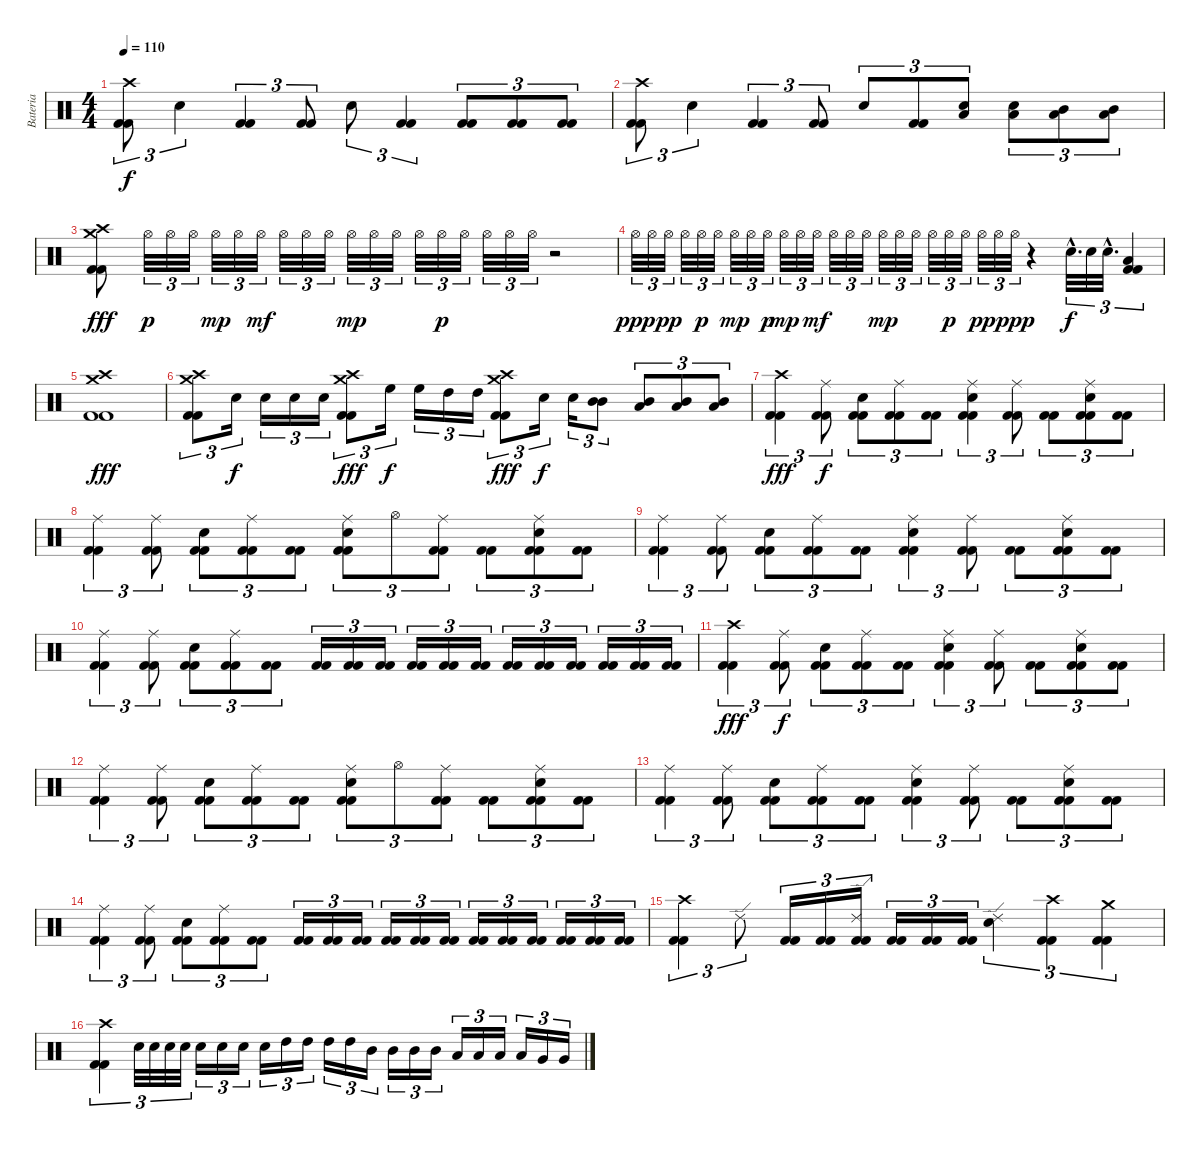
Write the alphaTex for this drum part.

\track ("Bateria" "Bateria") {instrument percussion}
\staff {score}
\articulation defaults
\ts (4 4)
\tempo 110
\clef neutral
\ks c
("Crash high (hit)" "Kick (hit) 2" "Kick (hit) 2").8{tu (3 2) dy f} "Electric Snare (hit)".4{tu (3 2)} ("Kick (hit) 2" "Kick (hit) 2").4{tu (3 2)} ("Kick (hit) 2" "Kick (hit) 2").8{tu (3 2)} "Electric Snare (hit)".8{tu (3 2)} ("Kick (hit) 2" "Kick (hit) 2").4{tu (3 2)} ("Kick (hit) 2" "Kick (hit) 2").8{tu (3 2)} ("Kick (hit) 2" "Kick (hit) 2").8{tu (3 2)} ("Kick (hit) 2" "Kick (hit) 2").8{tu (3 2)} |
("Crash high (hit)" "Kick (hit) 2" "Kick (hit) 2").8{tu (3 2)} "Electric Snare (hit)".4{tu (3 2)} ("Kick (hit) 2" "Kick (hit) 2").4{tu (3 2)} ("Kick (hit) 2" "Kick (hit) 2").8{tu (3 2)} "Electric Snare (hit)".8{tu (3 2)} ("Kick (hit) 2" "Kick (hit) 2").8{tu (3 2)} ("Electric Snare (hit)" "Low Tom (hit)").8{tu (3 2)} ("Electric Snare (hit)" "Low Tom (hit)").8{tu (3 2)} ("Low Tom (hit)" "Mid Tom (hit)").8{tu (3 2)} ("Low Tom (hit)" "Mid Tom (hit)").8{tu (3 2)} |
("Crash high (hit)" "Crash medium (hit)" "Kick (hit) 2" "Kick (hit) 2").8{dy fff} "Hi-Hat (open)".32{tu (3 2) dy p} "Hi-Hat (open)".32{tu (3 2)} "Hi-Hat (open)".32{tu (3 2)} "Hi-Hat (open)".32{tu (3 2) dy mp} "Hi-Hat (open)".32{tu (3 2)} "Hi-Hat (open)".32{tu (3 2) dy mf} "Hi-Hat (open)".32{tu (3 2)} "Hi-Hat (open)".32{tu (3 2)} "Hi-Hat (open)".32{tu (3 2)} "Hi-Hat (open)".32{tu (3 2) dy mp} "Hi-Hat (open)".32{tu (3 2)} "Hi-Hat (open)".32{tu (3 2)} "Hi-Hat (open)".32{tu (3 2)} "Hi-Hat (open)".32{tu (3 2) dy p} "Hi-Hat (open)".32{tu (3 2)} "Hi-Hat (open)".32{tu (3 2)} "Hi-Hat (open)".32{tu (3 2)} "Hi-Hat (open)".32{tu (3 2)} r.2 |
"Hi-Hat (open)".32{tu (3 2) dy ppp} "Hi-Hat (open)".32{tu (3 2)} "Hi-Hat (open)".32{tu (3 2) dy pp} "Hi-Hat (open)".32{tu (3 2)} "Hi-Hat (open)".32{tu (3 2) dy p} "Hi-Hat (open)".32{tu (3 2)} "Hi-Hat (open)".32{tu (3 2) dy mp} "Hi-Hat (open)".32{tu (3 2)} "Hi-Hat (open)".32{tu (3 2) dy p} "Hi-Hat (open)".32{tu (3 2) dy mp} "Hi-Hat (open)".32{tu (3 2)} "Hi-Hat (open)".32{tu (3 2) dy mf} "Hi-Hat (open)".32{tu (3 2)} "Hi-Hat (open)".32{tu (3 2)} "Hi-Hat (open)".32{tu (3 2)} "Hi-Hat (open)".32{tu (3 2) dy mp} "Hi-Hat (open)".32{tu (3 2)} "Hi-Hat (open)".32{tu (3 2)} "Hi-Hat (open)".32{tu (3 2)} "Hi-Hat (open)".32{tu (3 2) dy p} "Hi-Hat (open)".32{tu (3 2)} "Hi-Hat (open)".32{tu (3 2) dy pp} "Hi-Hat (open)".32{tu (3 2)} "Hi-Hat (open)".32{tu (3 2) dy ppp} r.4 "Electric Snare (hit)"{hac}.32{d tu (3 2) dy f} "Electric Snare (hit)".32{tu (3 2)} "Electric Snare (hit)"{hac}.32{d tu (3 2)} ("Low Tom (hit)" "Kick (hit) 2" "Kick (hit) 2").4{tu (3 2)} |
("Crash high (hit)" "Crash medium (hit)" "Kick (hit) 2" "Kick (hit) 2").1{dy fff} |
("Crash high (hit)" "Crash medium (hit)" "Kick (hit) 2" "Kick (hit) 2").8{tu (3 2)} "Electric Snare (hit)".16{tu (3 2) dy f} "Electric Snare (hit)".16{tu (3 2)} "Electric Snare (hit)".16{tu (3 2)} "Electric Snare (hit)".16{tu (3 2)} ("Crash high (hit)" "Crash medium (hit)" "Kick (hit) 2" "Kick (hit) 2").8{tu (3 2) dy fff} "High Floor Tom (hit)".16{tu (3 2) dy f} "High Floor Tom (hit)".16{tu (3 2)} "High Tom (hit)".16{tu (3 2)} "High Tom (hit)".16{tu (3 2)} ("Crash high (hit)" "Crash medium (hit)" "Kick (hit) 2" "Kick (hit) 2").8{tu (3 2) dy fff} "Electric Snare (hit)".16{tu (3 2) dy f} "Electric Snare (hit)".16{tu (3 2)} ("Mid Tom (hit)" "Mid Tom (hit)").8{tu (3 2)} ("Low Tom (hit)" "Mid Tom (hit)").8{tu (3 2)} ("Low Tom (hit)" "Mid Tom (hit)").8{tu (3 2)} ("Low Tom (hit)" "Mid Tom (hit)").8{tu (3 2)} |
("Crash high (hit)" "Kick (hit) 2" "Kick (hit) 2").4{tu (3 2) dy fff} ("Ride (middle)" "Kick (hit) 2" "Kick (hit) 2").8{tu (3 2) dy f} ("Electric Snare (hit)" "Kick (hit) 2" "Kick (hit) 2").8{tu (3 2)} ("Ride (middle)" "Kick (hit) 2" "Kick (hit) 2").8{tu (3 2)} ("Kick (hit) 2" "Kick (hit) 2").8{tu (3 2)} ("Ride (middle)" "Electric Snare (hit)" "Kick (hit) 2" "Kick (hit) 2").4{tu (3 2)} ("Ride (middle)" "Kick (hit) 2" "Kick (hit) 2").8{tu (3 2)} ("Kick (hit) 2" "Kick (hit) 2").8{tu (3 2)} ("Ride (middle)" "Electric Snare (hit)" "Kick (hit) 2" "Kick (hit) 2").8{tu (3 2)} ("Kick (hit) 2" "Kick (hit) 2").8{tu (3 2)} |
("Ride (middle)" "Kick (hit) 2" "Kick (hit) 2").4{tu (3 2)} ("Ride (middle)" "Kick (hit) 2" "Kick (hit) 2").8{tu (3 2)} ("Electric Snare (hit)" "Kick (hit) 2" "Kick (hit) 2").8{tu (3 2)} ("Ride (middle)" "Kick (hit) 2" "Kick (hit) 2").8{tu (3 2)} ("Kick (hit) 2" "Kick (hit) 2").8{tu (3 2)} ("Ride (middle)" "Electric Snare (hit)" "Kick (hit) 2" "Kick (hit) 2").8{tu (3 2)} "Hi-Hat (open)".8{tu (3 2)} ("Ride (middle)" "Kick (hit) 2" "Kick (hit) 2").8{tu (3 2)} ("Kick (hit) 2" "Kick (hit) 2").8{tu (3 2)} ("Ride (middle)" "Electric Snare (hit)" "Kick (hit) 2" "Kick (hit) 2").8{tu (3 2)} ("Kick (hit) 2" "Kick (hit) 2").8{tu (3 2)} |
("Ride (middle)" "Kick (hit) 2" "Kick (hit) 2").4{tu (3 2)} ("Ride (middle)" "Kick (hit) 2" "Kick (hit) 2").8{tu (3 2)} ("Electric Snare (hit)" "Kick (hit) 2" "Kick (hit) 2").8{tu (3 2)} ("Ride (middle)" "Kick (hit) 2" "Kick (hit) 2").8{tu (3 2)} ("Kick (hit) 2" "Kick (hit) 2").8{tu (3 2)} ("Ride (middle)" "Electric Snare (hit)" "Kick (hit) 2" "Kick (hit) 2").4{tu (3 2)} ("Ride (middle)" "Kick (hit) 2" "Kick (hit) 2").8{tu (3 2)} ("Kick (hit) 2" "Kick (hit) 2").8{tu (3 2)} ("Ride (middle)" "Electric Snare (hit)" "Kick (hit) 2" "Kick (hit) 2").8{tu (3 2)} ("Kick (hit) 2" "Kick (hit) 2").8{tu (3 2)} |
("Ride (middle)" "Kick (hit) 2" "Kick (hit) 2").4{tu (3 2)} ("Ride (middle)" "Kick (hit) 2" "Kick (hit) 2").8{tu (3 2)} ("Electric Snare (hit)" "Kick (hit) 2" "Kick (hit) 2").8{tu (3 2)} ("Ride (middle)" "Kick (hit) 2" "Kick (hit) 2").8{tu (3 2)} ("Kick (hit) 2" "Kick (hit) 2").8{tu (3 2)} ("Kick (hit) 2" "Kick (hit) 2").16{tu (3 2)} ("Kick (hit) 2" "Kick (hit) 2").16{tu (3 2)} ("Kick (hit) 2" "Kick (hit) 2").16{tu (3 2)} ("Kick (hit) 2" "Kick (hit) 2").16{tu (3 2)} ("Kick (hit) 2" "Kick (hit) 2").16{tu (3 2)} ("Kick (hit) 2" "Kick (hit) 2").16{tu (3 2)} ("Kick (hit) 2" "Kick (hit) 2").16{tu (3 2)} ("Kick (hit) 2" "Kick (hit) 2").16{tu (3 2)} ("Kick (hit) 2" "Kick (hit) 2").16{tu (3 2)} ("Kick (hit) 2" "Kick (hit) 2").16{tu (3 2)} ("Kick (hit) 2" "Kick (hit) 2").16{tu (3 2)} ("Kick (hit) 2" "Kick (hit) 2").16{tu (3 2)} |
("Crash high (hit)" "Kick (hit) 2" "Kick (hit) 2").4{tu (3 2) dy fff} ("Ride (middle)" "Kick (hit) 2" "Kick (hit) 2").8{tu (3 2) dy f} ("Electric Snare (hit)" "Kick (hit) 2" "Kick (hit) 2").8{tu (3 2)} ("Ride (middle)" "Kick (hit) 2" "Kick (hit) 2").8{tu (3 2)} ("Kick (hit) 2" "Kick (hit) 2").8{tu (3 2)} ("Ride (middle)" "Electric Snare (hit)" "Kick (hit) 2" "Kick (hit) 2").4{tu (3 2)} ("Ride (middle)" "Kick (hit) 2" "Kick (hit) 2").8{tu (3 2)} ("Kick (hit) 2" "Kick (hit) 2").8{tu (3 2)} ("Ride (middle)" "Electric Snare (hit)" "Kick (hit) 2" "Kick (hit) 2").8{tu (3 2)} ("Kick (hit) 2" "Kick (hit) 2").8{tu (3 2)} |
("Ride (middle)" "Kick (hit) 2" "Kick (hit) 2").4{tu (3 2)} ("Ride (middle)" "Kick (hit) 2" "Kick (hit) 2").8{tu (3 2)} ("Electric Snare (hit)" "Kick (hit) 2" "Kick (hit) 2").8{tu (3 2)} ("Ride (middle)" "Kick (hit) 2" "Kick (hit) 2").8{tu (3 2)} ("Kick (hit) 2" "Kick (hit) 2").8{tu (3 2)} ("Ride (middle)" "Electric Snare (hit)" "Kick (hit) 2" "Kick (hit) 2").8{tu (3 2)} "Hi-Hat (open)".8{tu (3 2)} ("Ride (middle)" "Kick (hit) 2" "Kick (hit) 2").8{tu (3 2)} ("Kick (hit) 2" "Kick (hit) 2").8{tu (3 2)} ("Ride (middle)" "Electric Snare (hit)" "Kick (hit) 2" "Kick (hit) 2").8{tu (3 2)} ("Kick (hit) 2" "Kick (hit) 2").8{tu (3 2)} |
("Ride (middle)" "Kick (hit) 2" "Kick (hit) 2").4{tu (3 2)} ("Ride (middle)" "Kick (hit) 2" "Kick (hit) 2").8{tu (3 2)} ("Electric Snare (hit)" "Kick (hit) 2" "Kick (hit) 2").8{tu (3 2)} ("Ride (middle)" "Kick (hit) 2" "Kick (hit) 2").8{tu (3 2)} ("Kick (hit) 2" "Kick (hit) 2").8{tu (3 2)} ("Ride (middle)" "Electric Snare (hit)" "Kick (hit) 2" "Kick (hit) 2").4{tu (3 2)} ("Ride (middle)" "Kick (hit) 2" "Kick (hit) 2").8{tu (3 2)} ("Kick (hit) 2" "Kick (hit) 2").8{tu (3 2)} ("Ride (middle)" "Electric Snare (hit)" "Kick (hit) 2" "Kick (hit) 2").8{tu (3 2)} ("Kick (hit) 2" "Kick (hit) 2").8{tu (3 2)} |
("Ride (middle)" "Kick (hit) 2" "Kick (hit) 2").4{tu (3 2)} ("Ride (middle)" "Kick (hit) 2" "Kick (hit) 2").8{tu (3 2)} ("Electric Snare (hit)" "Kick (hit) 2" "Kick (hit) 2").8{tu (3 2)} ("Ride (middle)" "Kick (hit) 2" "Kick (hit) 2").8{tu (3 2)} ("Kick (hit) 2" "Kick (hit) 2").8{tu (3 2)} ("Kick (hit) 2" "Kick (hit) 2").16{tu (3 2)} ("Kick (hit) 2" "Kick (hit) 2").16{tu (3 2)} ("Kick (hit) 2" "Kick (hit) 2").16{tu (3 2)} ("Kick (hit) 2" "Kick (hit) 2").16{tu (3 2)} ("Kick (hit) 2" "Kick (hit) 2").16{tu (3 2)} ("Kick (hit) 2" "Kick (hit) 2").16{tu (3 2)} ("Kick (hit) 2" "Kick (hit) 2").16{tu (3 2)} ("Kick (hit) 2" "Kick (hit) 2").16{tu (3 2)} ("Kick (hit) 2" "Kick (hit) 2").16{tu (3 2)} ("Kick (hit) 2" "Kick (hit) 2").16{tu (3 2)} ("Kick (hit) 2" "Kick (hit) 2").16{tu (3 2)} ("Kick (hit) 2" "Kick (hit) 2").16{tu (3 2)} |
("Crash high (hit)" "Kick (hit) 2" "Kick (hit) 2").4{tu (3 2)} "Ride (edge) 2".8{tu (3 2)} ("Kick (hit) 2" "Kick (hit) 2").16{tu (3 2)} ("Kick (hit) 2" "Kick (hit) 2").16{tu (3 2)} ("Ride (edge) 2" "Kick (hit) 2" "Kick (hit) 2").16{tu (3 2)} ("Kick (hit) 2" "Kick (hit) 2").16{tu (3 2)} ("Kick (hit) 2" "Kick (hit) 2").16{tu (3 2)} ("Kick (hit) 2" "Kick (hit) 2").16{tu (3 2)} ("Ride (edge) 2" "Electric Snare (hit)").4{tu (3 2)} ("Crash high (hit)" "Kick (hit) 2" "Kick (hit) 2").4{tu (3 2)} ("Crash medium (hit)" "Kick (hit) 2" "Kick (hit) 2").4{tu (3 2)} |
("Crash high (hit)" "Kick (hit) 2" "Kick (hit) 2").4{tu (3 2)} "Electric Snare (hit)".32{tu (3 2)} "Electric Snare (hit)".32{tu (3 2)} "Electric Snare (hit)".32{tu (3 2)} "Electric Snare (hit)".32{tu (3 2)} "Electric Snare (hit)".16{tu (3 2)} "Electric Snare (hit)".16{tu (3 2)} "Electric Snare (hit)".16{tu (3 2)} "Electric Snare (hit)".16{tu (3 2)} "High Tom (hit)".16{tu (3 2)} "High Tom (hit)".16{tu (3 2)} "High Tom (hit)".16{tu (3 2)} "High Tom (hit)".16{tu (3 2)} "Mid Tom (hit)".16{tu (3 2)} "Mid Tom (hit)".16{tu (3 2)} "Mid Tom (hit)".16{tu (3 2)} "Mid Tom (hit)".16{tu (3 2)} "Low Tom (hit)".16{tu (3 2)} "Low Tom (hit)".16{tu (3 2)} "Low Tom (hit)".16{tu (3 2)} "Low Tom (hit)".16{tu (3 2)} "Very Low Tom (hit)".16{tu (3 2)} "Very Low Tom (hit)".16{tu (3 2)}
